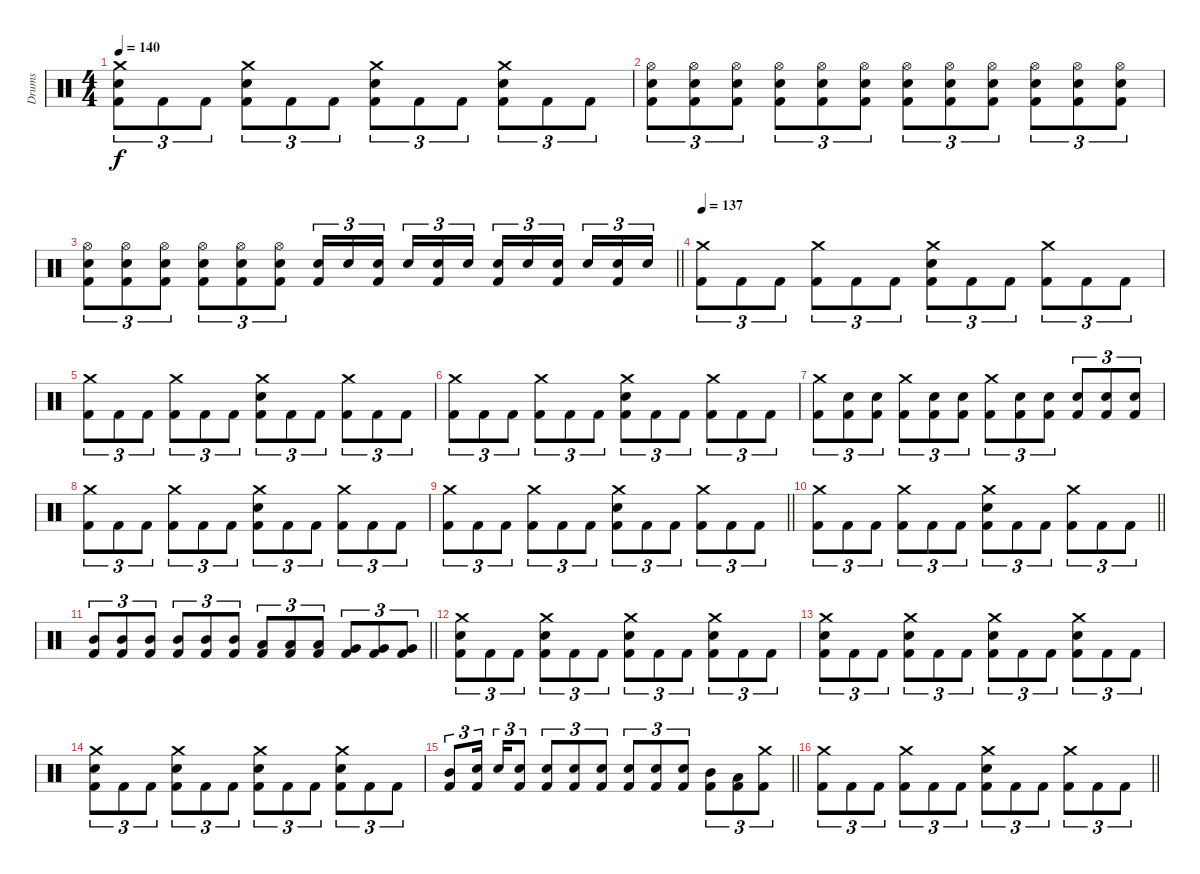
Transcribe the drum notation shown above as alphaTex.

\track ("Drums" "Drums") {instrument percussion}
\staff {score}
\articulation defaults
\ts (4 4)
\tempo 140
\clef neutral
\ks c
("Crash medium (hit)" "Electric Snare (hit)" "Kick (hit) 2").8{tu (3 2) dy f} "Kick (hit) 2".8{tu (3 2)} "Kick (hit) 2".8{tu (3 2)} ("Crash medium (hit)" "Electric Snare (hit)" "Kick (hit) 2").8{tu (3 2)} "Kick (hit) 2".8{tu (3 2)} "Kick (hit) 2".8{tu (3 2)} ("Crash medium (hit)" "Electric Snare (hit)" "Kick (hit) 2").8{tu (3 2)} "Kick (hit) 2".8{tu (3 2)} "Kick (hit) 2".8{tu (3 2)} ("Crash medium (hit)" "Electric Snare (hit)" "Kick (hit) 2").8{tu (3 2)} "Kick (hit) 2".8{tu (3 2)} "Kick (hit) 2".8{tu (3 2)} |
("Hi-Hat (open)" "Electric Snare (hit)" "Kick (hit) 2").8{tu (3 2)} ("Hi-Hat (open)" "Electric Snare (hit)" "Kick (hit) 2").8{tu (3 2)} ("Hi-Hat (open)" "Electric Snare (hit)" "Kick (hit) 2").8{tu (3 2)} ("Hi-Hat (open)" "Electric Snare (hit)" "Kick (hit) 2").8{tu (3 2)} ("Hi-Hat (open)" "Electric Snare (hit)" "Kick (hit) 2").8{tu (3 2)} ("Hi-Hat (open)" "Electric Snare (hit)" "Kick (hit) 2").8{tu (3 2)} ("Hi-Hat (open)" "Electric Snare (hit)" "Kick (hit) 2").8{tu (3 2)} ("Hi-Hat (open)" "Electric Snare (hit)" "Kick (hit) 2").8{tu (3 2)} ("Hi-Hat (open)" "Electric Snare (hit)" "Kick (hit) 2").8{tu (3 2)} ("Hi-Hat (open)" "Electric Snare (hit)" "Kick (hit) 2").8{tu (3 2)} ("Hi-Hat (open)" "Electric Snare (hit)" "Kick (hit) 2").8{tu (3 2)} ("Hi-Hat (open)" "Electric Snare (hit)" "Kick (hit) 2").8{tu (3 2)} |
\barLineRight lightlight
("Hi-Hat (open)" "Electric Snare (hit)" "Kick (hit) 2").8{tu (3 2)} ("Hi-Hat (open)" "Electric Snare (hit)" "Kick (hit) 2").8{tu (3 2)} ("Hi-Hat (open)" "Electric Snare (hit)" "Kick (hit) 2").8{tu (3 2)} ("Hi-Hat (open)" "Electric Snare (hit)" "Kick (hit) 2").8{tu (3 2)} ("Hi-Hat (open)" "Electric Snare (hit)" "Kick (hit) 2").8{tu (3 2)} ("Hi-Hat (open)" "Electric Snare (hit)" "Kick (hit) 2").8{tu (3 2)} ("Electric Snare (hit)" "Kick (hit) 2").16{tu (3 2)} "Electric Snare (hit)".16{tu (3 2)} ("Electric Snare (hit)" "Kick (hit) 2").16{tu (3 2) beam splitsecondary} "Electric Snare (hit)".16{tu (3 2)} ("Electric Snare (hit)" "Kick (hit) 2").16{tu (3 2)} "Electric Snare (hit)".16{tu (3 2)} ("Electric Snare (hit)" "Kick (hit) 2").16{tu (3 2)} "Electric Snare (hit)".16{tu (3 2)} ("Electric Snare (hit)" "Kick (hit) 2").16{tu (3 2) beam splitsecondary} "Electric Snare (hit)".16{tu (3 2)} ("Electric Snare (hit)" "Kick (hit) 2").16{tu (3 2)} "Electric Snare (hit)".16{tu (3 2)} |
\tempo 137
("Crash medium (hit)" "Kick (hit) 2").8{tu (3 2)} "Kick (hit) 2".8{tu (3 2)} "Kick (hit) 2".8{tu (3 2)} ("Crash medium (hit)" "Kick (hit) 2").8{tu (3 2)} "Kick (hit) 2".8{tu (3 2)} "Kick (hit) 2".8{tu (3 2)} ("Crash medium (hit)" "Electric Snare (hit)" "Kick (hit) 2").8{tu (3 2)} "Kick (hit) 2".8{tu (3 2)} "Kick (hit) 2".8{tu (3 2)} ("Crash medium (hit)" "Kick (hit) 2").8{tu (3 2)} "Kick (hit) 2".8{tu (3 2)} "Kick (hit) 2".8{tu (3 2)} |
("Crash medium (hit)" "Kick (hit) 2").8{tu (3 2)} "Kick (hit) 2".8{tu (3 2)} "Kick (hit) 2".8{tu (3 2)} ("Crash medium (hit)" "Kick (hit) 2").8{tu (3 2)} "Kick (hit) 2".8{tu (3 2)} "Kick (hit) 2".8{tu (3 2)} ("Crash medium (hit)" "Electric Snare (hit)" "Kick (hit) 2").8{tu (3 2)} "Kick (hit) 2".8{tu (3 2)} "Kick (hit) 2".8{tu (3 2)} ("Crash medium (hit)" "Kick (hit) 2").8{tu (3 2)} "Kick (hit) 2".8{tu (3 2)} "Kick (hit) 2".8{tu (3 2)} |
("Crash medium (hit)" "Kick (hit) 2").8{tu (3 2)} "Kick (hit) 2".8{tu (3 2)} "Kick (hit) 2".8{tu (3 2)} ("Crash medium (hit)" "Kick (hit) 2").8{tu (3 2)} "Kick (hit) 2".8{tu (3 2)} "Kick (hit) 2".8{tu (3 2)} ("Crash medium (hit)" "Electric Snare (hit)" "Kick (hit) 2").8{tu (3 2)} "Kick (hit) 2".8{tu (3 2)} "Kick (hit) 2".8{tu (3 2)} ("Crash medium (hit)" "Kick (hit) 2").8{tu (3 2)} "Kick (hit) 2".8{tu (3 2)} "Kick (hit) 2".8{tu (3 2)} |
("Crash medium (hit)" "Kick (hit) 2").8{tu (3 2)} ("Electric Snare (hit)" "Kick (hit) 2").8{tu (3 2)} ("Electric Snare (hit)" "Kick (hit) 2").8{tu (3 2)} ("Crash medium (hit)" "Kick (hit) 2").8{tu (3 2)} ("Electric Snare (hit)" "Kick (hit) 2").8{tu (3 2)} ("Electric Snare (hit)" "Kick (hit) 2").8{tu (3 2)} ("Crash medium (hit)" "Kick (hit) 2").8{tu (3 2)} ("Electric Snare (hit)" "Kick (hit) 2").8{tu (3 2)} ("Electric Snare (hit)" "Kick (hit) 2").8{tu (3 2)} ("Electric Snare (hit)" "Kick (hit) 2").8{tu (3 2)} ("Electric Snare (hit)" "Kick (hit) 2").8{tu (3 2)} ("Electric Snare (hit)" "Kick (hit) 2").8{tu (3 2)} |
("Crash medium (hit)" "Kick (hit) 2").8{tu (3 2)} "Kick (hit) 2".8{tu (3 2)} "Kick (hit) 2".8{tu (3 2)} ("Crash medium (hit)" "Kick (hit) 2").8{tu (3 2)} "Kick (hit) 2".8{tu (3 2)} "Kick (hit) 2".8{tu (3 2)} ("Crash medium (hit)" "Electric Snare (hit)" "Kick (hit) 2").8{tu (3 2)} "Kick (hit) 2".8{tu (3 2)} "Kick (hit) 2".8{tu (3 2)} ("Crash medium (hit)" "Kick (hit) 2").8{tu (3 2)} "Kick (hit) 2".8{tu (3 2)} "Kick (hit) 2".8{tu (3 2)} |
\barLineRight lightlight
("Crash medium (hit)" "Kick (hit) 2").8{tu (3 2)} "Kick (hit) 2".8{tu (3 2)} "Kick (hit) 2".8{tu (3 2)} ("Crash medium (hit)" "Kick (hit) 2").8{tu (3 2)} "Kick (hit) 2".8{tu (3 2)} "Kick (hit) 2".8{tu (3 2)} ("Crash medium (hit)" "Electric Snare (hit)" "Kick (hit) 2").8{tu (3 2)} "Kick (hit) 2".8{tu (3 2)} "Kick (hit) 2".8{tu (3 2)} ("Crash medium (hit)" "Kick (hit) 2").8{tu (3 2)} "Kick (hit) 2".8{tu (3 2)} "Kick (hit) 2".8{tu (3 2)} |
\barLineRight lightlight
("Crash medium (hit)" "Kick (hit) 2").8{tu (3 2)} "Kick (hit) 2".8{tu (3 2)} "Kick (hit) 2".8{tu (3 2)} ("Crash medium (hit)" "Kick (hit) 2").8{tu (3 2)} "Kick (hit) 2".8{tu (3 2)} "Kick (hit) 2".8{tu (3 2)} ("Crash medium (hit)" "Electric Snare (hit)" "Kick (hit) 2").8{tu (3 2)} "Kick (hit) 2".8{tu (3 2)} "Kick (hit) 2".8{tu (3 2)} ("Crash medium (hit)" "Kick (hit) 2").8{tu (3 2)} "Kick (hit) 2".8{tu (3 2)} "Kick (hit) 2".8{tu (3 2)} |
\barLineRight lightlight
("Mid Tom (hit)" "Kick (hit) 2").8{tu (3 2)} ("Mid Tom (hit)" "Kick (hit) 2").8{tu (3 2)} ("Mid Tom (hit)" "Kick (hit) 2").8{tu (3 2)} ("Mid Tom (hit)" "Kick (hit) 2").8{tu (3 2)} ("Mid Tom (hit)" "Kick (hit) 2").8{tu (3 2)} ("Mid Tom (hit)" "Kick (hit) 2").8{tu (3 2)} ("Low Tom (hit)" "Kick (hit) 2").8{tu (3 2)} ("Low Tom (hit)" "Kick (hit) 2").8{tu (3 2)} ("Low Tom (hit)" "Kick (hit) 2").8{tu (3 2)} ("Very Low Tom (hit)" "Kick (hit) 2").8{tu (3 2)} ("Very Low Tom (hit)" "Kick (hit) 2").8{tu (3 2)} ("Very Low Tom (hit)" "Kick (hit) 2").8{tu (3 2)} |
("Crash medium (hit)" "Electric Snare (hit)" "Kick (hit) 2").8{tu (3 2)} "Kick (hit) 2".8{tu (3 2)} "Kick (hit) 2".8{tu (3 2)} ("Crash medium (hit)" "Electric Snare (hit)" "Kick (hit) 2").8{tu (3 2)} "Kick (hit) 2".8{tu (3 2)} "Kick (hit) 2".8{tu (3 2)} ("Crash medium (hit)" "Electric Snare (hit)" "Kick (hit) 2").8{tu (3 2)} "Kick (hit) 2".8{tu (3 2)} "Kick (hit) 2".8{tu (3 2)} ("Crash medium (hit)" "Electric Snare (hit)" "Kick (hit) 2").8{tu (3 2)} "Kick (hit) 2".8{tu (3 2)} "Kick (hit) 2".8{tu (3 2)} |
("Crash medium (hit)" "Electric Snare (hit)" "Kick (hit) 2").8{tu (3 2)} "Kick (hit) 2".8{tu (3 2)} "Kick (hit) 2".8{tu (3 2)} ("Crash medium (hit)" "Electric Snare (hit)" "Kick (hit) 2").8{tu (3 2)} "Kick (hit) 2".8{tu (3 2)} "Kick (hit) 2".8{tu (3 2)} ("Crash medium (hit)" "Electric Snare (hit)" "Kick (hit) 2").8{tu (3 2)} "Kick (hit) 2".8{tu (3 2)} "Kick (hit) 2".8{tu (3 2)} ("Crash medium (hit)" "Electric Snare (hit)" "Kick (hit) 2").8{tu (3 2)} "Kick (hit) 2".8{tu (3 2)} "Kick (hit) 2".8{tu (3 2)} |
("Crash medium (hit)" "Electric Snare (hit)" "Kick (hit) 2").8{tu (3 2)} "Kick (hit) 2".8{tu (3 2)} "Kick (hit) 2".8{tu (3 2)} ("Crash medium (hit)" "Electric Snare (hit)" "Kick (hit) 2").8{tu (3 2)} "Kick (hit) 2".8{tu (3 2)} "Kick (hit) 2".8{tu (3 2)} ("Crash medium (hit)" "Electric Snare (hit)" "Kick (hit) 2").8{tu (3 2)} "Kick (hit) 2".8{tu (3 2)} "Kick (hit) 2".8{tu (3 2)} ("Crash medium (hit)" "Electric Snare (hit)" "Kick (hit) 2").8{tu (3 2)} "Kick (hit) 2".8{tu (3 2)} "Kick (hit) 2".8{tu (3 2)} |
\barLineRight lightlight
("Mid Tom (hit)" "Kick (hit) 2").8{tu (3 2)} ("Electric Snare (hit)" "Kick (hit) 2").16{tu (3 2) beam splitsecondary} "Electric Snare (hit)".16{tu (3 2)} ("Electric Snare (hit)" "Kick (hit) 2").8{tu (3 2)} ("Electric Snare (hit)" "Kick (hit) 2").8{tu (3 2)} ("Electric Snare (hit)" "Kick (hit) 2").8{tu (3 2)} ("Electric Snare (hit)" "Kick (hit) 2").8{tu (3 2)} ("Electric Snare (hit)" "Kick (hit) 2").8{tu (3 2)} ("Electric Snare (hit)" "Kick (hit) 2").8{tu (3 2)} ("Electric Snare (hit)" "Kick (hit) 2").8{tu (3 2)} ("Mid Tom (hit)" "Kick (hit) 2").8{tu (3 2)} ("Low Tom (hit)" "Kick (hit) 2").8{tu (3 2)} ("Crash medium (hit)" "Kick (hit) 2").8{tu (3 2)} |
\barLineRight lightlight
("Crash medium (hit)" "Kick (hit) 2").8{tu (3 2)} "Kick (hit) 2".8{tu (3 2)} "Kick (hit) 2".8{tu (3 2)} ("Crash medium (hit)" "Kick (hit) 2").8{tu (3 2)} "Kick (hit) 2".8{tu (3 2)} "Kick (hit) 2".8{tu (3 2)} ("Crash medium (hit)" "Electric Snare (hit)" "Kick (hit) 2").8{tu (3 2)} "Kick (hit) 2".8{tu (3 2)} "Kick (hit) 2".8{tu (3 2)} ("Crash medium (hit)" "Kick (hit) 2").8{tu (3 2)} "Kick (hit) 2".8{tu (3 2)} "Kick (hit) 2".8{tu (3 2)}
